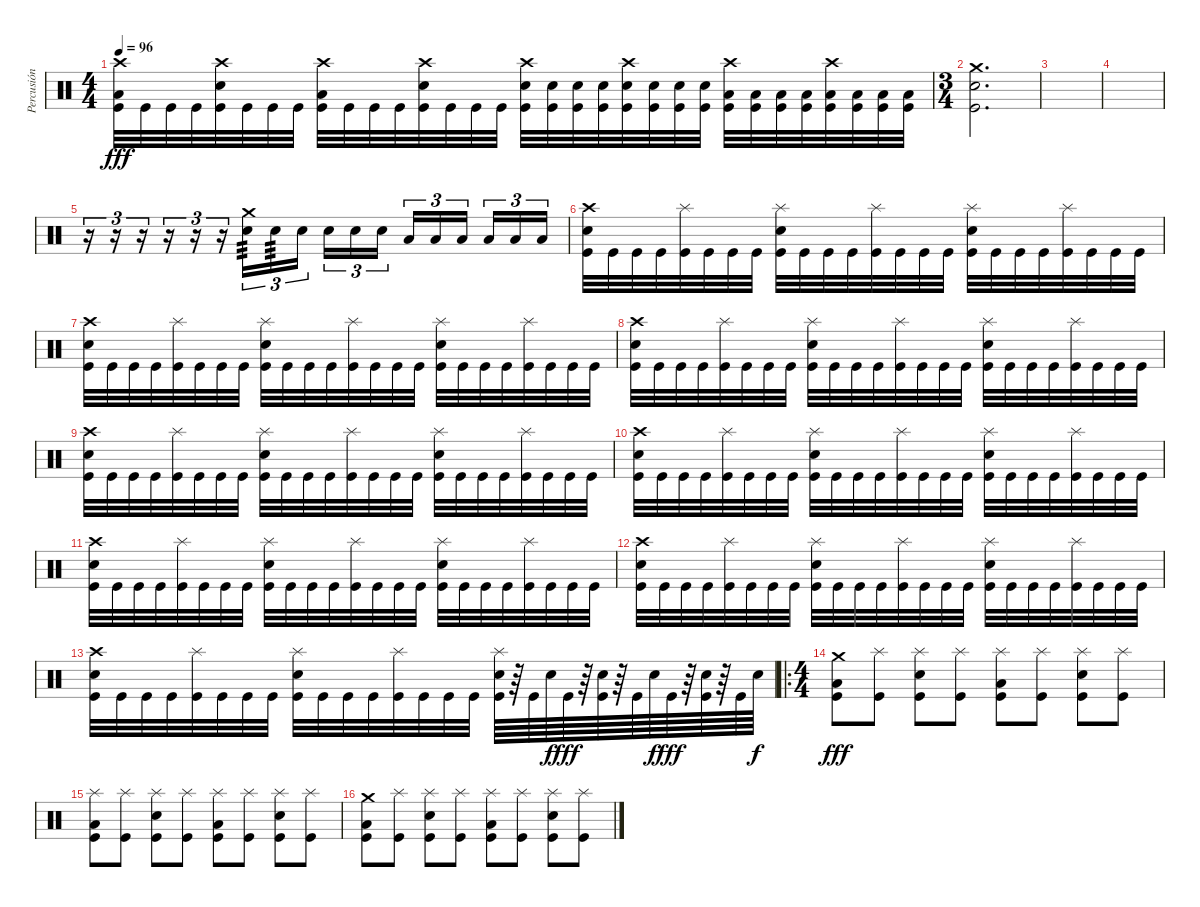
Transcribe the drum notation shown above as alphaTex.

\track ("Percusión" "Percusión") {instrument percussion}
\staff {score}
\articulation defaults
\ts (4 4)
\tempo 96
\clef neutral
\ks c
("Crash high (hit)" "Low Floor Tom (hit)" "Kick (hit)").32{dy fff} "Kick (hit)".32 "Kick (hit)".32 "Kick (hit)".32 ("Crash high (hit)" "Snare (hit) 2" "Kick (hit)").32 "Kick (hit)".32 "Kick (hit)".32 "Kick (hit)".32 ("Crash high (hit)" "Low Floor Tom (hit)" "Kick (hit)").32 "Kick (hit)".32 "Kick (hit)".32 "Kick (hit)".32 ("Crash high (hit)" "Snare (hit) 2" "Kick (hit)").32 "Kick (hit)".32 "Kick (hit)".32 "Kick (hit)".32 ("Crash high (hit)" "Snare (hit) 2" "Kick (hit)").32 ("Snare (hit) 2" "Kick (hit)").32 ("Snare (hit) 2" "Kick (hit)").32 ("Snare (hit) 2" "Kick (hit)").32 ("Crash high (hit)" "Snare (hit) 2" "Kick (hit)").32 ("Snare (hit) 2" "Kick (hit)").32 ("Snare (hit) 2" "Kick (hit)").32 ("Snare (hit) 2" "Kick (hit)").32 ("Crash high (hit)" "Low Floor Tom (hit)" "Kick (hit)").32 ("Low Floor Tom (hit)" "Kick (hit)").32 ("Low Floor Tom (hit)" "Kick (hit)").32 ("Low Floor Tom (hit)" "Kick (hit)").32 ("Crash high (hit)" "Low Floor Tom (hit)" "Kick (hit)").32 ("Low Floor Tom (hit)" "Kick (hit)").32 ("Low Floor Tom (hit)" "Kick (hit)").32 ("Low Floor Tom (hit)" "Kick (hit)").32 |
\ts (3 4)
("Crash medium (hit)" "Snare (hit) 2" "Kick (hit)").2{d} |
|
|
r.16{tu (3 2)} r.16{tu (3 2)} r.16{tu (3 2)} r.16{tu (3 2)} r.16{tu (3 2)} r.16{tu (3 2)} ("Crash medium (hit)" "Snare (hit) 2").16{tu (3 2) tp 3} "Snare (hit) 2".16{tu (3 2) tp 3} "Snare (hit) 2".16{tu (3 2) beam splitsecondary} "Snare (hit) 2".16{tu (3 2)} "Snare (hit) 2".16{tu (3 2)} "Snare (hit) 2".16{tu (3 2)} "Low Floor Tom (hit)".16{tu (3 2)} "Low Floor Tom (hit)".16{tu (3 2)} "Low Floor Tom (hit)".16{tu (3 2) beam splitsecondary} "Low Floor Tom (hit)".16{tu (3 2)} "Low Floor Tom (hit)".16{tu (3 2)} "Low Floor Tom (hit)".16{tu (3 2)} |
("Crash high (hit)" "Snare (hit) 2" "Kick (hit)").32 "Kick (hit)".32 "Kick (hit)".32 "Kick (hit)".32 ("Splash (hit)" "Kick (hit)").32 "Kick (hit)".32 "Kick (hit)".32 "Kick (hit)".32 ("Splash (hit)" "Snare (hit) 2" "Kick (hit)").32 "Kick (hit)".32 "Kick (hit)".32 "Kick (hit)".32 ("Splash (hit)" "Kick (hit)").32 "Kick (hit)".32 "Kick (hit)".32 "Kick (hit)".32 ("Splash (hit)" "Snare (hit) 2" "Kick (hit)").32 "Kick (hit)".32 "Kick (hit)".32 "Kick (hit)".32 ("Splash (hit)" "Kick (hit)").32 "Kick (hit)".32 "Kick (hit)".32 "Kick (hit)".32 |
("Crash high (hit)" "Snare (hit) 2" "Kick (hit)").32 "Kick (hit)".32 "Kick (hit)".32 "Kick (hit)".32 ("Splash (hit)" "Kick (hit)").32 "Kick (hit)".32 "Kick (hit)".32 "Kick (hit)".32 ("Splash (hit)" "Snare (hit) 2" "Kick (hit)").32 "Kick (hit)".32 "Kick (hit)".32 "Kick (hit)".32 ("Splash (hit)" "Kick (hit)").32 "Kick (hit)".32 "Kick (hit)".32 "Kick (hit)".32 ("Splash (hit)" "Snare (hit) 2" "Kick (hit)").32 "Kick (hit)".32 "Kick (hit)".32 "Kick (hit)".32 ("Splash (hit)" "Kick (hit)").32 "Kick (hit)".32 "Kick (hit)".32 "Kick (hit)".32 |
("Crash high (hit)" "Snare (hit) 2" "Kick (hit)").32 "Kick (hit)".32 "Kick (hit)".32 "Kick (hit)".32 ("Splash (hit)" "Kick (hit)").32 "Kick (hit)".32 "Kick (hit)".32 "Kick (hit)".32 ("Splash (hit)" "Snare (hit) 2" "Kick (hit)").32 "Kick (hit)".32 "Kick (hit)".32 "Kick (hit)".32 ("Splash (hit)" "Kick (hit)").32 "Kick (hit)".32 "Kick (hit)".32 "Kick (hit)".32 ("Splash (hit)" "Snare (hit) 2" "Kick (hit)").32 "Kick (hit)".32 "Kick (hit)".32 "Kick (hit)".32 ("Splash (hit)" "Kick (hit)").32 "Kick (hit)".32 "Kick (hit)".32 "Kick (hit)".32 |
("Crash high (hit)" "Snare (hit) 2" "Kick (hit)").32 "Kick (hit)".32 "Kick (hit)".32 "Kick (hit)".32 ("Splash (hit)" "Kick (hit)").32 "Kick (hit)".32 "Kick (hit)".32 "Kick (hit)".32 ("Splash (hit)" "Snare (hit) 2" "Kick (hit)").32 "Kick (hit)".32 "Kick (hit)".32 "Kick (hit)".32 ("Splash (hit)" "Kick (hit)").32 "Kick (hit)".32 "Kick (hit)".32 "Kick (hit)".32 ("Splash (hit)" "Snare (hit) 2" "Kick (hit)").32 "Kick (hit)".32 "Kick (hit)".32 "Kick (hit)".32 ("Splash (hit)" "Kick (hit)").32 "Kick (hit)".32 "Kick (hit)".32 "Kick (hit)".32 |
("Crash high (hit)" "Snare (hit) 2" "Kick (hit)").32 "Kick (hit)".32 "Kick (hit)".32 "Kick (hit)".32 ("Splash (hit)" "Kick (hit)").32 "Kick (hit)".32 "Kick (hit)".32 "Kick (hit)".32 ("Splash (hit)" "Snare (hit) 2" "Kick (hit)").32 "Kick (hit)".32 "Kick (hit)".32 "Kick (hit)".32 ("Splash (hit)" "Kick (hit)").32 "Kick (hit)".32 "Kick (hit)".32 "Kick (hit)".32 ("Splash (hit)" "Snare (hit) 2" "Kick (hit)").32 "Kick (hit)".32 "Kick (hit)".32 "Kick (hit)".32 ("Splash (hit)" "Kick (hit)").32 "Kick (hit)".32 "Kick (hit)".32 "Kick (hit)".32 |
("Crash high (hit)" "Snare (hit) 2" "Kick (hit)").32 "Kick (hit)".32 "Kick (hit)".32 "Kick (hit)".32 ("Splash (hit)" "Kick (hit)").32 "Kick (hit)".32 "Kick (hit)".32 "Kick (hit)".32 ("Splash (hit)" "Snare (hit) 2" "Kick (hit)").32 "Kick (hit)".32 "Kick (hit)".32 "Kick (hit)".32 ("Splash (hit)" "Kick (hit)").32 "Kick (hit)".32 "Kick (hit)".32 "Kick (hit)".32 ("Splash (hit)" "Snare (hit) 2" "Kick (hit)").32 "Kick (hit)".32 "Kick (hit)".32 "Kick (hit)".32 ("Splash (hit)" "Kick (hit)").32 "Kick (hit)".32 "Kick (hit)".32 "Kick (hit)".32 |
("Crash high (hit)" "Snare (hit) 2" "Kick (hit)").32 "Kick (hit)".32 "Kick (hit)".32 "Kick (hit)".32 ("Splash (hit)" "Kick (hit)").32 "Kick (hit)".32 "Kick (hit)".32 "Kick (hit)".32 ("Splash (hit)" "Snare (hit) 2" "Kick (hit)").32 "Kick (hit)".32 "Kick (hit)".32 "Kick (hit)".32 ("Splash (hit)" "Kick (hit)").32 "Kick (hit)".32 "Kick (hit)".32 "Kick (hit)".32 ("Splash (hit)" "Snare (hit) 2" "Kick (hit)").32 "Kick (hit)".32 "Kick (hit)".32 "Kick (hit)".32 ("Splash (hit)" "Kick (hit)").32 "Kick (hit)".32 "Kick (hit)".32 "Kick (hit)".32 |
("Crash high (hit)" "Snare (hit) 2" "Kick (hit)").32 "Kick (hit)".32 "Kick (hit)".32 "Kick (hit)".32 ("Splash (hit)" "Kick (hit)").32 "Kick (hit)".32 "Kick (hit)".32 "Kick (hit)".32 ("Splash (hit)" "Snare (hit) 2" "Kick (hit)").32 "Kick (hit)".32 "Kick (hit)".32 "Kick (hit)".32 ("Splash (hit)" "Kick (hit)").32 "Kick (hit)".32 "Kick (hit)".32 "Kick (hit)".32 ("Splash (hit)" "Snare (hit) 2" "Kick (hit)").64 r.64 "Kick (hit)".64 "Snare (hit) 2".64{dy f} "Kick (hit)".64{dy fff} r.64 ("Snare (hit) 2" "Kick (hit)").64 r.64 "Kick (hit)".64 "Snare (hit) 2".64{dy f} "Kick (hit)".64{dy fff} r.64 ("Snare (hit) 2" "Kick (hit)").64 r.64 "Kick (hit)".64 "Snare (hit) 2".64{dy f} |
\ro
\ts (4 4)
("Crash medium (hit)" "Low Floor Tom (hit)" "Kick (hit)").8{dy fff} ("Splash (hit)" "Kick (hit)").8 ("Splash (hit)" "Snare (hit) 2" "Kick (hit)").8 ("Splash (hit)" "Kick (hit)").8 ("Splash (hit)" "Low Floor Tom (hit)" "Kick (hit)").8 ("Splash (hit)" "Kick (hit)").8 ("Splash (hit)" "Snare (hit) 2" "Kick (hit)").8 ("Splash (hit)" "Kick (hit)").8 |
("Splash (hit)" "Low Floor Tom (hit)" "Kick (hit)").8 ("Splash (hit)" "Kick (hit)").8 ("Splash (hit)" "Snare (hit) 2" "Kick (hit)").8 ("Splash (hit)" "Kick (hit)").8 ("Splash (hit)" "Low Floor Tom (hit)" "Kick (hit)").8 ("Splash (hit)" "Kick (hit)").8 ("Splash (hit)" "Snare (hit) 2" "Kick (hit)").8 ("Splash (hit)" "Kick (hit)").8 |
("Crash medium (hit)" "Low Floor Tom (hit)" "Kick (hit)").8 ("Splash (hit)" "Kick (hit)").8 ("Splash (hit)" "Snare (hit) 2" "Kick (hit)").8 ("Splash (hit)" "Kick (hit)").8 ("Splash (hit)" "Low Floor Tom (hit)" "Kick (hit)").8 ("Splash (hit)" "Kick (hit)").8 ("Splash (hit)" "Snare (hit) 2" "Kick (hit)").8 ("Splash (hit)" "Kick (hit)").8
